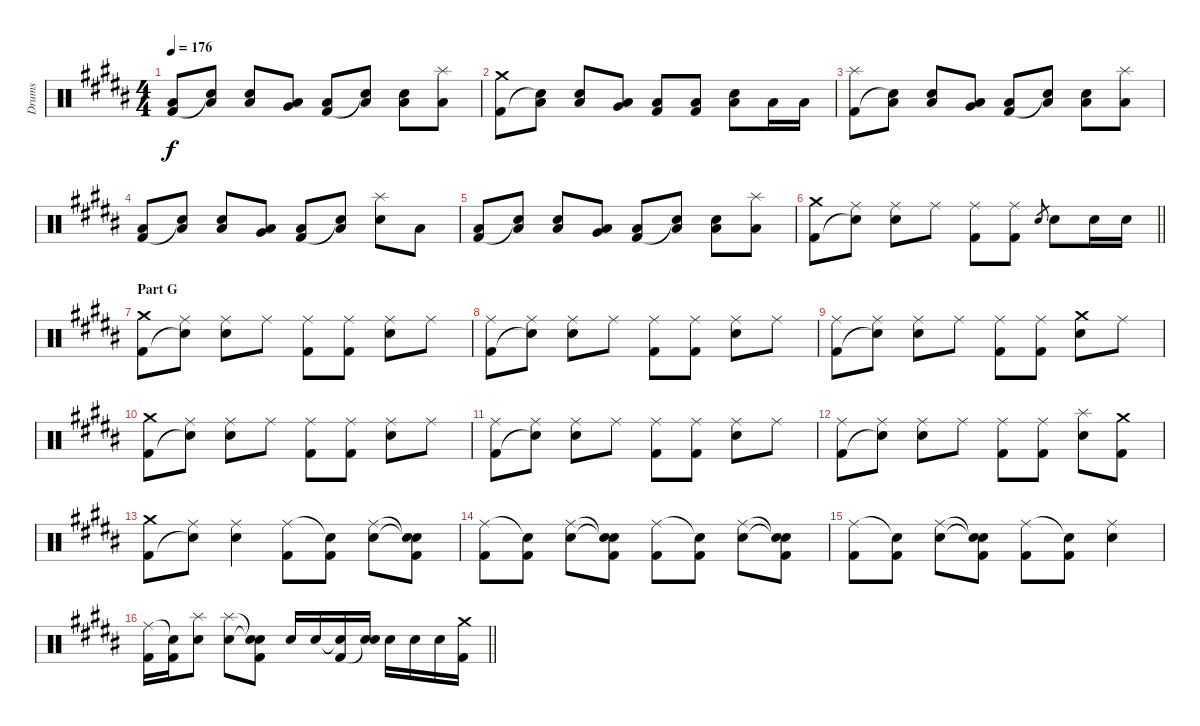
\track ("Drums" "Drums") {instrument percussion}
\staff {score}
\articulation defaults
\ts (4 4)
\tempo 176
\clef neutral
\ks b
("Low Floor Tom (hit)" "Kick (hit) 2").8{dy f} ("Low Floor Tom (hit)" "Snare (hit)"{t}).8 ("Electric Snare (hit)" "Low Floor Tom (hit)").8 ("Very Low Tom (hit)" "Low Floor Tom (hit)").8 ("Low Floor Tom (hit)" "Kick (hit) 2").8 ("Low Floor Tom (hit)" "Snare (hit)"{t}).8 ("Electric Snare (hit)" "Low Floor Tom (hit)").8 ("Splash (hit)" "Low Floor Tom (hit)").8 |
("Crash medium (hit)" "Kick (hit) 2").8 ("Low Floor Tom (hit)" "Snare (hit)"{t}).8 ("Electric Snare (hit)" "Low Floor Tom (hit)").8 ("Very Low Tom (hit)" "Low Floor Tom (hit)").8 ("Low Floor Tom (hit)" "Kick (hit) 2").8 ("Low Floor Tom (hit)" "Kick (hit) 2").8 ("Electric Snare (hit)" "Low Floor Tom (hit)").8 "Low Floor Tom (hit)".16 "Low Floor Tom (hit)".16 |
("Splash (hit)" "Kick (hit) 2").8 ("Low Floor Tom (hit)" "Snare (hit)"{t}).8 ("Electric Snare (hit)" "Low Floor Tom (hit)").8 ("Very Low Tom (hit)" "Low Floor Tom (hit)").8 ("Low Floor Tom (hit)" "Kick (hit) 2").8 ("Low Floor Tom (hit)" "Snare (hit)"{t}).8 ("Electric Snare (hit)" "Low Floor Tom (hit)").8 ("Splash (hit)" "Low Floor Tom (hit)").8 |
("Low Floor Tom (hit)" "Kick (hit) 2").8 ("Low Floor Tom (hit)" "Snare (hit)"{t}).8 ("Electric Snare (hit)" "Low Floor Tom (hit)").8 ("Very Low Tom (hit)" "Low Floor Tom (hit)").8 ("Low Floor Tom (hit)" "Kick (hit) 2").8 ("Low Floor Tom (hit)" "Snare (hit)"{t}).8 ("Splash (hit)" "Electric Snare (hit)").8 "Low Floor Tom (hit)".8 |
("Low Floor Tom (hit)" "Kick (hit) 2").8 ("Low Floor Tom (hit)" "Snare (hit)"{t}).8 ("Electric Snare (hit)" "Low Floor Tom (hit)").8 ("Very Low Tom (hit)" "Low Floor Tom (hit)").8 ("Low Floor Tom (hit)" "Kick (hit) 2").8 ("Low Floor Tom (hit)" "Snare (hit)"{t}).8 ("Electric Snare (hit)" "Low Floor Tom (hit)").8 ("Splash (hit)" "Low Floor Tom (hit)").8 |
\barLineRight lightlight
("Crash medium (hit)" "Kick (hit) 2").8 ("Ride (middle)" "Snare (hit)"{t}).8 ("Ride (middle)" "Electric Snare (hit)").8 "Ride (middle)".8 ("Ride (middle)" "Kick (hit) 2").8 ("Ride (middle)" "Kick (hit) 2").8 "Electric Snare (hit)".8{gr} "Electric Snare (hit)".8 "Electric Snare (hit)".16 "Electric Snare (hit)".16 |
\section ("" "Part G")
("Crash medium (hit)" "Kick (hit) 2").8 ("Ride (middle)" "Snare (hit)"{t}).8 ("Ride (middle)" "Electric Snare (hit)").8 "Ride (middle)".8 ("Ride (middle)" "Kick (hit) 2").8 ("Ride (middle)" "Kick (hit) 2").8 ("Ride (middle)" "Electric Snare (hit)").8 "Ride (middle)".8 |
("Ride (middle)" "Kick (hit) 2").8 ("Ride (middle)" "Snare (hit)"{t}).8 ("Ride (middle)" "Electric Snare (hit)").8 "Ride (middle)".8 ("Ride (middle)" "Kick (hit) 2").8 ("Ride (middle)" "Kick (hit) 2").8 ("Ride (middle)" "Electric Snare (hit)").8 "Ride (middle)".8 |
("Ride (middle)" "Kick (hit) 2").8 ("Ride (middle)" "Snare (hit)"{t}).8 ("Ride (middle)" "Electric Snare (hit)").8 "Ride (middle)".8 ("Ride (middle)" "Kick (hit) 2").8 ("Ride (middle)" "Kick (hit) 2").8 ("Crash medium (hit)" "Electric Snare (hit)").8 "Ride (middle)".8 |
("Crash medium (hit)" "Kick (hit) 2").8 ("Ride (middle)" "Snare (hit)"{t}).8 ("Ride (middle)" "Electric Snare (hit)").8 "Ride (middle)".8 ("Ride (middle)" "Kick (hit) 2").8 ("Ride (middle)" "Kick (hit) 2").8 ("Ride (middle)" "Electric Snare (hit)").8 "Ride (middle)".8 |
("Ride (middle)" "Kick (hit) 2").8 ("Ride (middle)" "Snare (hit)"{t}).8 ("Ride (middle)" "Electric Snare (hit)").8 "Ride (middle)".8 ("Ride (middle)" "Kick (hit) 2").8 ("Ride (middle)" "Kick (hit) 2").8 ("Ride (middle)" "Electric Snare (hit)").8 "Ride (middle)".8 |
("Ride (middle)" "Kick (hit) 2").8 ("Ride (middle)" "Snare (hit)"{t}).8 ("Ride (middle)" "Electric Snare (hit)").8 "Ride (middle)".8 ("Ride (middle)" "Kick (hit) 2").8 ("Ride (middle)" "Kick (hit) 2").8 ("Splash (hit)" "Electric Snare (hit)").8 ("Crash medium (hit)" "Kick (hit) 2").8 |
("Crash medium (hit)" "Kick (hit) 2").8 ("Ride (middle)" "Snare (hit)"{t}).8 ("Ride (middle)" "Electric Snare (hit)").4 ("Ride (middle)" "Kick (hit) 2").8 ("Snare (hit)"{t} "Kick (hit) 2").8 ("Ride (middle)" "Electric Snare (hit)").8 ("Snare (hit)"{t} "Snare (hit)"{t} "Kick (hit) 2").8 |
("Ride (middle)" "Kick (hit) 2").8 ("Snare (hit)"{t} "Kick (hit) 2").8 ("Ride (middle)" "Electric Snare (hit)").8 ("Snare (hit)"{t} "Snare (hit)"{t} "Kick (hit) 2").8 ("Ride (middle)" "Kick (hit) 2").8 ("Snare (hit)"{t} "Kick (hit) 2").8 ("Ride (middle)" "Electric Snare (hit)").8 ("Snare (hit)"{t} "Snare (hit)"{t} "Kick (hit) 2").8 |
("Ride (middle)" "Kick (hit) 2").8 ("Snare (hit)"{t} "Kick (hit) 2").8 ("Ride (middle)" "Electric Snare (hit)").8 ("Snare (hit)"{t} "Snare (hit)"{t} "Kick (hit) 2").8 ("Ride (middle)" "Kick (hit) 2").8 ("Snare (hit)"{t} "Kick (hit) 2").8 ("Ride (middle)" "Electric Snare (hit)").4 |
\barLineRight lightlight
("Ride (middle)" "Kick (hit) 2").16 ("Snare (hit)"{t} "Kick (hit) 2").16 ("Splash (hit)" "Electric Snare (hit)").8 ("Splash (hit)" "Electric Snare (hit)").8 ("Snare (hit)"{t} "Snare (hit)"{t} "Kick (hit) 2").8 "Electric Snare (hit)".16 "Electric Snare (hit)".16 ("Electric Snare (hit)"{t} "Kick (hit) 2").16 ("Electric Snare (hit)" "Snare (hit)"{t}).16 "Electric Snare (hit)".16 "Electric Snare (hit)".16 "Electric Snare (hit)".16 ("Crash medium (hit)" "Kick (hit) 2").16
